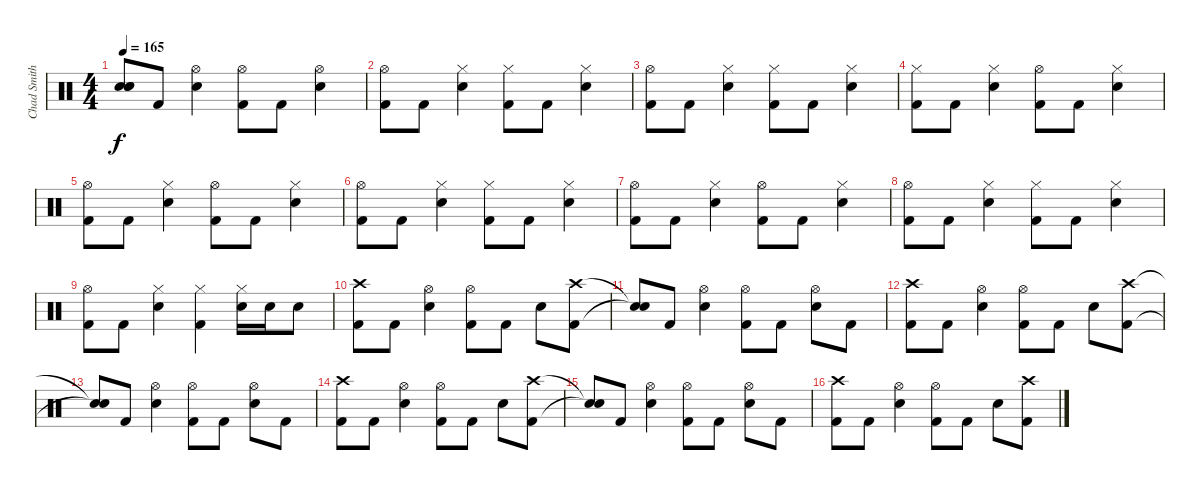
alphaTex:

\track ("Chad Smith - Drums" "Chad Smith") {instrument percussion}
\staff {score}
\articulation defaults
\ts (4 4)
\tempo 165
\clef neutral
\ks c
("Snare (hit)"{t} "Snare (hit)"{t} "Snare (hit)"{t}).8{dy f} "Kick (hit) 2".8 ("Snare (hit) 2" "Hi-Hat (open)").4 ("Kick (hit) 2" "Hi-Hat (open)").8 "Kick (hit) 2".8 ("Snare (hit) 2" "Hi-Hat (open)").4 |
("Hi-Hat (open)" "Kick (hit) 2").8 "Kick (hit) 2".8 ("Hi-Hat (closed)" "Snare (hit) 2").4 ("Hi-Hat (closed)" "Kick (hit) 2").8 "Kick (hit) 2".8 ("Hi-Hat (closed)" "Snare (hit) 2").4 |
("Hi-Hat (open)" "Kick (hit) 2").8 "Kick (hit) 2".8 ("Hi-Hat (closed)" "Snare (hit) 2").4 ("Hi-Hat (closed)" "Kick (hit) 2").8 "Kick (hit) 2".8 ("Hi-Hat (closed)" "Snare (hit) 2").4 |
("Hi-Hat (closed)" "Kick (hit) 2").8 "Kick (hit) 2".8 ("Hi-Hat (closed)" "Snare (hit) 2").4 ("Kick (hit) 2" "Hi-Hat (open)").8 "Kick (hit) 2".8 ("Snare (hit) 2" "Hi-Hat (closed)").4 |
("Kick (hit) 2" "Hi-Hat (open)").8 "Kick (hit) 2".8 ("Snare (hit) 2" "Hi-Hat (closed)").4 ("Kick (hit) 2" "Hi-Hat (open)").8 "Kick (hit) 2".8 ("Snare (hit) 2" "Hi-Hat (closed)").4 |
("Hi-Hat (open)" "Kick (hit) 2").8 "Kick (hit) 2".8 ("Hi-Hat (closed)" "Snare (hit) 2").4 ("Hi-Hat (closed)" "Kick (hit) 2").8 "Kick (hit) 2".8 ("Hi-Hat (closed)" "Snare (hit) 2").4 |
("Kick (hit) 2" "Hi-Hat (open)").8 "Kick (hit) 2".8 ("Snare (hit) 2" "Hi-Hat (closed)").4 ("Kick (hit) 2" "Hi-Hat (open)").8 "Kick (hit) 2".8 ("Snare (hit) 2" "Hi-Hat (closed)").4 |
("Hi-Hat (open)" "Kick (hit) 2").8 "Kick (hit) 2".8 ("Hi-Hat (closed)" "Snare (hit) 2").4 ("Hi-Hat (closed)" "Kick (hit) 2").8 "Kick (hit) 2".8 ("Hi-Hat (closed)" "Snare (hit) 2").4 |
("Hi-Hat (open)" "Kick (hit) 2").8 "Kick (hit) 2".8 ("Hi-Hat (closed)" "Snare (hit) 2").4 ("Hi-Hat (closed)" "Kick (hit) 2").4 ("Hi-Hat (closed)" "Snare (hit) 2").16 "Snare (hit) 2".16 "Snare (hit) 2".8 |
("Crash high (hit)" "Kick (hit) 2").8 "Kick (hit) 2".8 ("Hi-Hat (open)" "Snare (hit) 2").4 ("Hi-Hat (open)" "Kick (hit) 2").8 "Kick (hit) 2".8 "Snare (hit) 2".8 ("Crash high (hit)" "Kick (hit) 2").8 |
("Snare (hit)"{t} "Snare (hit)"{t}).8 "Kick (hit) 2".8 ("Hi-Hat (open)" "Snare (hit) 2").4 ("Hi-Hat (open)" "Kick (hit) 2").8 "Kick (hit) 2".8 ("Hi-Hat (open)" "Snare (hit) 2").8 "Kick (hit) 2".8 |
("Crash high (hit)" "Kick (hit) 2").8 "Kick (hit) 2".8 ("Hi-Hat (open)" "Snare (hit) 2").4 ("Hi-Hat (open)" "Kick (hit) 2").8 "Kick (hit) 2".8 "Snare (hit) 2".8 ("Crash high (hit)" "Kick (hit) 2").8 |
("Snare (hit)"{t} "Snare (hit)"{t}).8 "Kick (hit) 2".8 ("Hi-Hat (open)" "Snare (hit) 2").4 ("Hi-Hat (open)" "Kick (hit) 2").8 "Kick (hit) 2".8 ("Hi-Hat (open)" "Snare (hit) 2").8 "Kick (hit) 2".8 |
("Crash high (hit)" "Kick (hit) 2").8 "Kick (hit) 2".8 ("Hi-Hat (open)" "Snare (hit) 2").4 ("Hi-Hat (open)" "Kick (hit) 2").8 "Kick (hit) 2".8 "Snare (hit) 2".8 ("Crash high (hit)" "Kick (hit) 2").8 |
("Snare (hit)"{t} "Snare (hit)"{t}).8 "Kick (hit) 2".8 ("Hi-Hat (open)" "Snare (hit) 2").4 ("Hi-Hat (open)" "Kick (hit) 2").8 "Kick (hit) 2".8 ("Hi-Hat (open)" "Snare (hit) 2").8 "Kick (hit) 2".8 |
("Crash high (hit)" "Kick (hit) 2").8 "Kick (hit) 2".8 ("Hi-Hat (open)" "Snare (hit) 2").4 ("Hi-Hat (open)" "Kick (hit) 2").8 "Kick (hit) 2".8 "Snare (hit) 2".8 ("Crash high (hit)" "Kick (hit) 2").8
